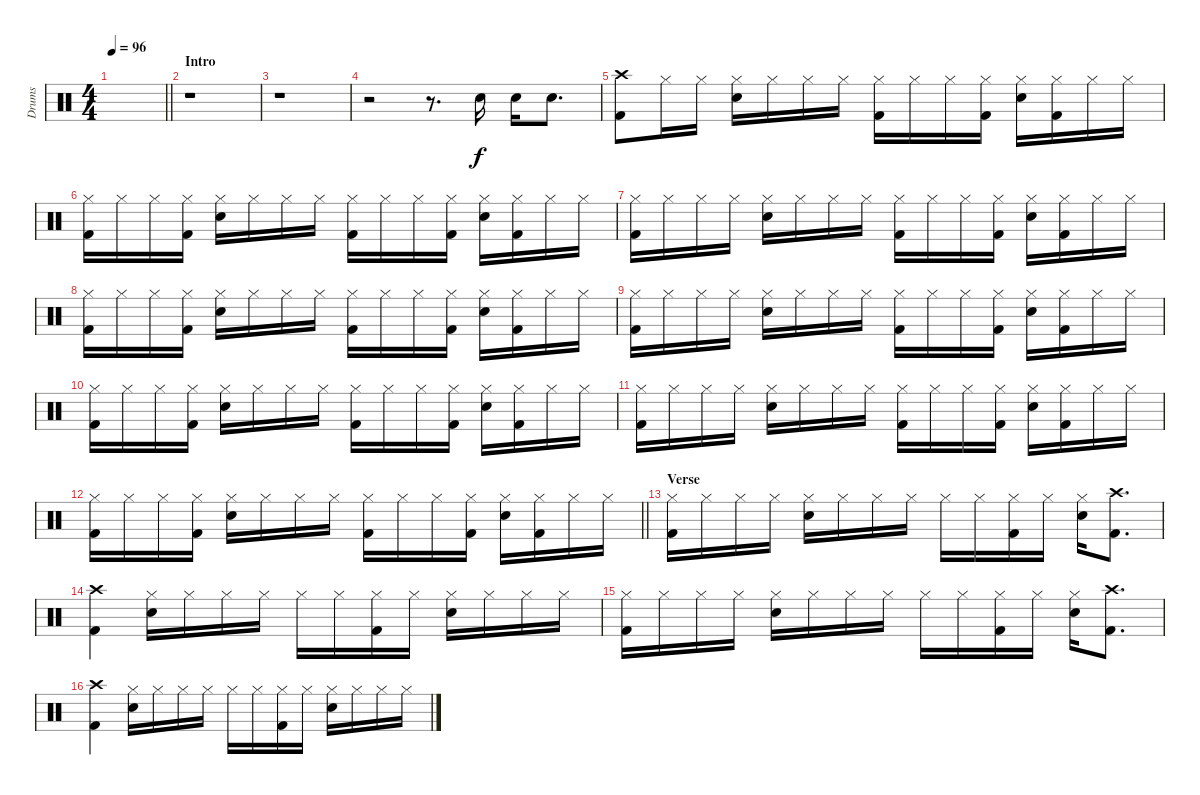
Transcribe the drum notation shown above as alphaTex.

\track ("Drums" "Drums") {instrument percussion}
\staff {score}
\articulation defaults
\ts (4 4)
\tempo 96
\clef neutral
\barLineRight lightlight
\ks c
|
\section ("" "Intro")
r.1 |
r.1 |
r.2 r.8{d} "Electric Snare (hit)".16 "Electric Snare (hit)".16 "Electric Snare (hit)".8{d} |
("Crash high (hit)" "Kick (hit) 2").8 "Hi-Hat (closed)".16 "Hi-Hat (closed)".16 ("Hi-Hat (closed)" "Electric Snare (hit)").16 "Hi-Hat (closed)".16 "Hi-Hat (closed)".16 "Hi-Hat (closed)".16 ("Hi-Hat (closed)" "Kick (hit) 2").16 "Hi-Hat (closed)".16 "Hi-Hat (closed)".16 ("Hi-Hat (closed)" "Kick (hit) 2").16 ("Hi-Hat (closed)" "Electric Snare (hit)").16 ("Hi-Hat (closed)" "Kick (hit) 2").16 "Hi-Hat (closed)".16 "Hi-Hat (closed)".16 |
("Hi-Hat (closed)" "Kick (hit) 2").16 "Hi-Hat (closed)".16 "Hi-Hat (closed)".16 ("Hi-Hat (closed)" "Kick (hit) 2").16 ("Hi-Hat (closed)" "Electric Snare (hit)").16 "Hi-Hat (closed)".16 "Hi-Hat (closed)".16 "Hi-Hat (closed)".16 ("Hi-Hat (closed)" "Kick (hit) 2").16 "Hi-Hat (closed)".16 "Hi-Hat (closed)".16 ("Hi-Hat (closed)" "Kick (hit) 2").16 ("Hi-Hat (closed)" "Electric Snare (hit)").16 ("Hi-Hat (closed)" "Kick (hit) 2").16 "Hi-Hat (closed)".16 "Hi-Hat (closed)".16 |
("Hi-Hat (closed)" "Kick (hit) 2").16 "Hi-Hat (closed)".16 "Hi-Hat (closed)".16 "Hi-Hat (closed)".16 ("Hi-Hat (closed)" "Electric Snare (hit)").16 "Hi-Hat (closed)".16 "Hi-Hat (closed)".16 "Hi-Hat (closed)".16 ("Hi-Hat (closed)" "Kick (hit) 2").16 "Hi-Hat (closed)".16 "Hi-Hat (closed)".16 ("Hi-Hat (closed)" "Kick (hit) 2").16 ("Hi-Hat (closed)" "Electric Snare (hit)").16 ("Hi-Hat (closed)" "Kick (hit) 2").16 "Hi-Hat (closed)".16 "Hi-Hat (closed)".16 |
("Hi-Hat (closed)" "Kick (hit) 2").16 "Hi-Hat (closed)".16 "Hi-Hat (closed)".16 ("Hi-Hat (closed)" "Kick (hit) 2").16 ("Hi-Hat (closed)" "Electric Snare (hit)").16 "Hi-Hat (closed)".16 "Hi-Hat (closed)".16 "Hi-Hat (closed)".16 ("Hi-Hat (closed)" "Kick (hit) 2").16 "Hi-Hat (closed)".16 "Hi-Hat (closed)".16 ("Hi-Hat (closed)" "Kick (hit) 2").16 ("Hi-Hat (closed)" "Electric Snare (hit)").16 ("Hi-Hat (closed)" "Kick (hit) 2").16 "Hi-Hat (closed)".16 "Hi-Hat (closed)".16 |
("Hi-Hat (closed)" "Kick (hit) 2").16 "Hi-Hat (closed)".16 "Hi-Hat (closed)".16 "Hi-Hat (closed)".16 ("Hi-Hat (closed)" "Electric Snare (hit)").16 "Hi-Hat (closed)".16 "Hi-Hat (closed)".16 "Hi-Hat (closed)".16 ("Hi-Hat (closed)" "Kick (hit) 2").16 "Hi-Hat (closed)".16 "Hi-Hat (closed)".16 ("Hi-Hat (closed)" "Kick (hit) 2").16 ("Hi-Hat (closed)" "Electric Snare (hit)").16 ("Hi-Hat (closed)" "Kick (hit) 2").16 "Hi-Hat (closed)".16 "Hi-Hat (closed)".16 |
("Hi-Hat (closed)" "Kick (hit) 2").16 "Hi-Hat (closed)".16 "Hi-Hat (closed)".16 ("Hi-Hat (closed)" "Kick (hit) 2").16 ("Hi-Hat (closed)" "Electric Snare (hit)").16 "Hi-Hat (closed)".16 "Hi-Hat (closed)".16 "Hi-Hat (closed)".16 ("Hi-Hat (closed)" "Kick (hit) 2").16 "Hi-Hat (closed)".16 "Hi-Hat (closed)".16 ("Hi-Hat (closed)" "Kick (hit) 2").16 ("Hi-Hat (closed)" "Electric Snare (hit)").16 ("Hi-Hat (closed)" "Kick (hit) 2").16 "Hi-Hat (closed)".16 "Hi-Hat (closed)".16 |
("Hi-Hat (closed)" "Kick (hit) 2").16 "Hi-Hat (closed)".16 "Hi-Hat (closed)".16 "Hi-Hat (closed)".16 ("Hi-Hat (closed)" "Electric Snare (hit)").16 "Hi-Hat (closed)".16 "Hi-Hat (closed)".16 "Hi-Hat (closed)".16 ("Hi-Hat (closed)" "Kick (hit) 2").16 "Hi-Hat (closed)".16 "Hi-Hat (closed)".16 ("Hi-Hat (closed)" "Kick (hit) 2").16 ("Hi-Hat (closed)" "Electric Snare (hit)").16 ("Hi-Hat (closed)" "Kick (hit) 2").16 "Hi-Hat (closed)".16 "Hi-Hat (closed)".16 |
\barLineRight lightlight
("Hi-Hat (closed)" "Kick (hit) 2").16 "Hi-Hat (closed)".16 "Hi-Hat (closed)".16 ("Hi-Hat (closed)" "Kick (hit) 2").16 ("Hi-Hat (closed)" "Electric Snare (hit)").16 "Hi-Hat (closed)".16 "Hi-Hat (closed)".16 "Hi-Hat (closed)".16 ("Hi-Hat (closed)" "Kick (hit) 2").16 "Hi-Hat (closed)".16 "Hi-Hat (closed)".16 ("Hi-Hat (closed)" "Kick (hit) 2").16 ("Hi-Hat (closed)" "Electric Snare (hit)").16 ("Hi-Hat (closed)" "Kick (hit) 2").16 "Hi-Hat (closed)".16 "Hi-Hat (closed)".16 |
\section ("" "Verse")
("Hi-Hat (closed)" "Kick (hit) 2").16 "Hi-Hat (closed)".16 "Hi-Hat (closed)".16 "Hi-Hat (closed)".16 ("Hi-Hat (closed)" "Electric Snare (hit)").16 "Hi-Hat (closed)".16 "Hi-Hat (closed)".16 "Hi-Hat (closed)".16 "Hi-Hat (closed)".16 "Hi-Hat (closed)".16 ("Hi-Hat (closed)" "Kick (hit) 2").16 "Hi-Hat (closed)".16 ("Hi-Hat (closed)" "Electric Snare (hit)").16 ("Crash high (hit)" "Kick (hit) 2").8{d} |
("Crash high (hit)" "Kick (hit) 2").4 ("Hi-Hat (closed)" "Electric Snare (hit)").16 "Hi-Hat (closed)".16 "Hi-Hat (closed)".16 "Hi-Hat (closed)".16 "Hi-Hat (closed)".16 "Hi-Hat (closed)".16 ("Hi-Hat (closed)" "Kick (hit) 2").16 "Hi-Hat (closed)".16 ("Hi-Hat (closed)" "Electric Snare (hit)").16 "Hi-Hat (closed)".16 "Hi-Hat (closed)".16 "Hi-Hat (closed)".16 |
("Hi-Hat (closed)" "Kick (hit) 2").16 "Hi-Hat (closed)".16 "Hi-Hat (closed)".16 "Hi-Hat (closed)".16 ("Hi-Hat (closed)" "Electric Snare (hit)").16 "Hi-Hat (closed)".16 "Hi-Hat (closed)".16 "Hi-Hat (closed)".16 "Hi-Hat (closed)".16 "Hi-Hat (closed)".16 ("Hi-Hat (closed)" "Kick (hit) 2").16 "Hi-Hat (closed)".16 ("Hi-Hat (closed)" "Electric Snare (hit)").16 ("Crash high (hit)" "Kick (hit) 2").8{d} |
("Crash high (hit)" "Kick (hit) 2").4 ("Hi-Hat (closed)" "Electric Snare (hit)").16 "Hi-Hat (closed)".16 "Hi-Hat (closed)".16 "Hi-Hat (closed)".16 "Hi-Hat (closed)".16 "Hi-Hat (closed)".16 ("Hi-Hat (closed)" "Kick (hit) 2").16 "Hi-Hat (closed)".16 ("Hi-Hat (closed)" "Electric Snare (hit)").16 "Hi-Hat (closed)".16 "Hi-Hat (closed)".16 "Hi-Hat (closed)".16
